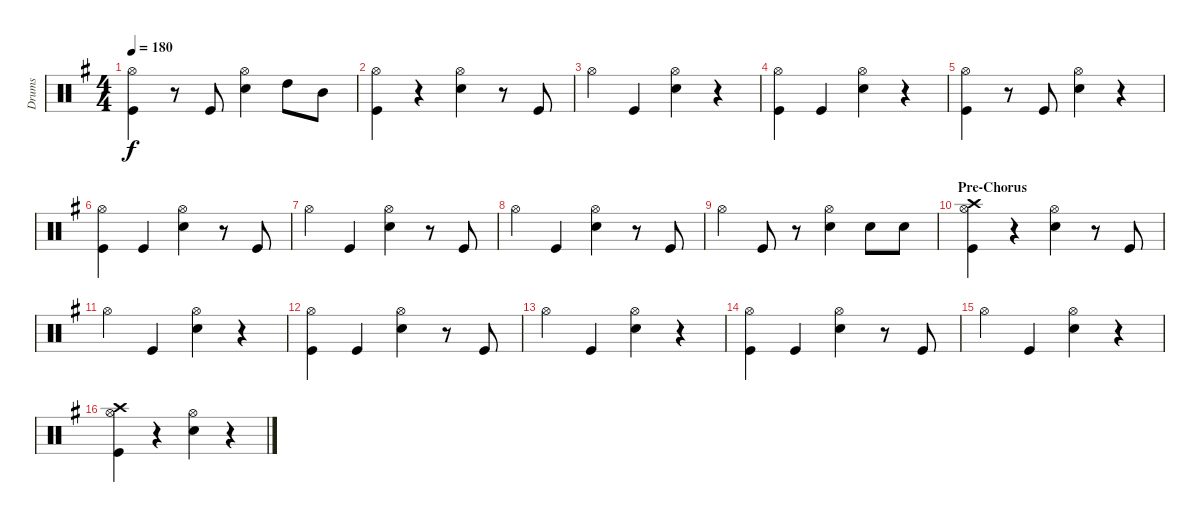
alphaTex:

\track ("Drums" "Drums") {instrument percussion}
\staff {score}
\articulation defaults
\ts (4 4)
\tempo 180
\clef neutral
\ks eminor
("Hi-Hat (open)" "Kick (hit)").4{dy f} r.8 "Kick (hit)".8 ("Hi-Hat (open)" "Snare (hit) 2").4 "High Tom (hit)".8 "Mid Tom (hit)".8 |
("Hi-Hat (open)" "Kick (hit)").4 r.4 ("Hi-Hat (open)" "Snare (hit) 2").4 r.8 "Kick (hit)".8 |
"Hi-Hat (open)".4 "Kick (hit)".4 ("Hi-Hat (open)" "Snare (hit) 2").4 r.4 |
("Hi-Hat (open)" "Kick (hit)").4 "Kick (hit)".4 ("Hi-Hat (open)" "Snare (hit) 2").4 r.4 |
("Hi-Hat (open)" "Kick (hit)").4 r.8 "Kick (hit)".8 ("Hi-Hat (open)" "Snare (hit) 2").4 r.4 |
("Hi-Hat (open)" "Kick (hit)").4 "Kick (hit)".4 ("Hi-Hat (open)" "Snare (hit) 2").4 r.8 "Kick (hit)".8 |
"Hi-Hat (open)".4 "Kick (hit)".4 ("Hi-Hat (open)" "Snare (hit) 2").4 r.8 "Kick (hit)".8 |
"Hi-Hat (open)".4 "Kick (hit)".4 ("Hi-Hat (open)" "Snare (hit) 2").4 r.8 "Kick (hit)".8 |
"Hi-Hat (open)".4 "Kick (hit)".8 r.8 ("Hi-Hat (open)" "Snare (hit) 2").4 "Snare (hit) 2".8 "Snare (hit) 2".8 |
\section ("" "Pre-Chorus")
("Crash high (hit)" "Hi-Hat (open)" "Kick (hit)").4 r.4 ("Hi-Hat (open)" "Snare (hit) 2").4 r.8 "Kick (hit)".8 |
"Hi-Hat (open)".4 "Kick (hit)".4 ("Hi-Hat (open)" "Snare (hit) 2").4 r.4 |
("Hi-Hat (open)" "Kick (hit)").4 "Kick (hit)".4 ("Hi-Hat (open)" "Snare (hit) 2").4 r.8 "Kick (hit)".8 |
"Hi-Hat (open)".4 "Kick (hit)".4 ("Hi-Hat (open)" "Snare (hit) 2").4 r.4 |
("Hi-Hat (open)" "Kick (hit)").4 "Kick (hit)".4 ("Hi-Hat (open)" "Snare (hit) 2").4 r.8 "Kick (hit)".8 |
"Hi-Hat (open)".4 "Kick (hit)".4 ("Hi-Hat (open)" "Snare (hit) 2").4 r.4 |
("Crash high (hit)" "Hi-Hat (open)" "Kick (hit)").4 r.4 ("Hi-Hat (open)" "Snare (hit) 2").4 r.4
